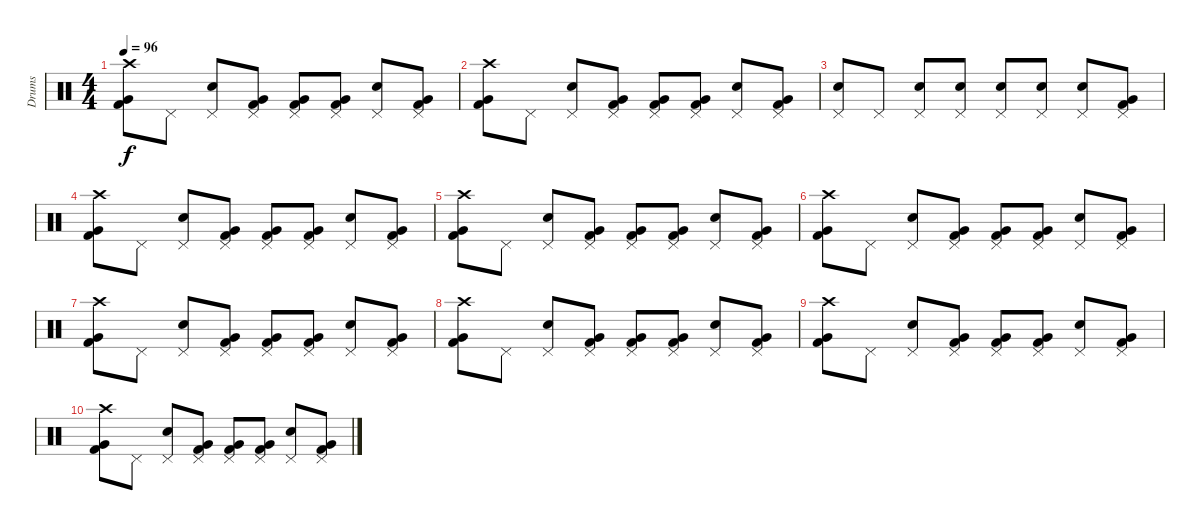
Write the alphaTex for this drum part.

\track ("Drums" "Drums") {instrument percussion}
\staff {score}
\articulation defaults
\ts (4 4)
\tempo 96
\clef neutral
\ks c
("Crash high (hit)" "Very Low Tom (hit)" "Kick (hit) 2").8{dy f} "Pedal Hi-Hat (hit)".8 ("Pedal Hi-Hat (hit)" "Electric Snare (hit)").8 ("Pedal Hi-Hat (hit)" "Very Low Tom (hit)" "Kick (hit) 2").8 ("Pedal Hi-Hat (hit)" "Very Low Tom (hit)" "Kick (hit) 2").8 ("Pedal Hi-Hat (hit)" "Very Low Tom (hit)" "Kick (hit) 2").8 ("Pedal Hi-Hat (hit)" "Electric Snare (hit)").8 ("Pedal Hi-Hat (hit)" "Very Low Tom (hit)" "Kick (hit) 2").8 |
("Crash high (hit)" "Very Low Tom (hit)" "Kick (hit) 2").8{volume 11} "Pedal Hi-Hat (hit)".8 ("Pedal Hi-Hat (hit)" "Electric Snare (hit)").8 ("Pedal Hi-Hat (hit)" "Very Low Tom (hit)" "Kick (hit) 2").8 ("Pedal Hi-Hat (hit)" "Very Low Tom (hit)" "Kick (hit) 2").8 ("Pedal Hi-Hat (hit)" "Very Low Tom (hit)" "Kick (hit) 2").8 ("Pedal Hi-Hat (hit)" "Electric Snare (hit)").8 ("Pedal Hi-Hat (hit)" "Very Low Tom (hit)" "Kick (hit) 2").8 |
("Pedal Hi-Hat (hit)" "Electric Snare (hit)").8 "Pedal Hi-Hat (hit)".8 ("Pedal Hi-Hat (hit)" "Electric Snare (hit)").8 ("Pedal Hi-Hat (hit)" "Electric Snare (hit)").8 ("Pedal Hi-Hat (hit)" "Electric Snare (hit)").8 ("Pedal Hi-Hat (hit)" "Electric Snare (hit)").8 ("Pedal Hi-Hat (hit)" "Electric Snare (hit)").8 ("Pedal Hi-Hat (hit)" "Very Low Tom (hit)" "Kick (hit) 2").8 |
("Crash high (hit)" "Very Low Tom (hit)" "Kick (hit) 2").8{volume 8} "Pedal Hi-Hat (hit)".8 ("Pedal Hi-Hat (hit)" "Electric Snare (hit)").8 ("Pedal Hi-Hat (hit)" "Very Low Tom (hit)" "Kick (hit) 2").8 ("Pedal Hi-Hat (hit)" "Very Low Tom (hit)" "Kick (hit) 2").8 ("Pedal Hi-Hat (hit)" "Very Low Tom (hit)" "Kick (hit) 2").8 ("Pedal Hi-Hat (hit)" "Electric Snare (hit)").8 ("Pedal Hi-Hat (hit)" "Very Low Tom (hit)" "Kick (hit) 2").8 |
("Crash high (hit)" "Very Low Tom (hit)" "Kick (hit) 2").8 "Pedal Hi-Hat (hit)".8 ("Pedal Hi-Hat (hit)" "Electric Snare (hit)").8 ("Pedal Hi-Hat (hit)" "Very Low Tom (hit)" "Kick (hit) 2").8 ("Pedal Hi-Hat (hit)" "Very Low Tom (hit)" "Kick (hit) 2").8 ("Pedal Hi-Hat (hit)" "Very Low Tom (hit)" "Kick (hit) 2").8 ("Pedal Hi-Hat (hit)" "Electric Snare (hit)").8 ("Pedal Hi-Hat (hit)" "Very Low Tom (hit)" "Kick (hit) 2").8 |
("Crash high (hit)" "Very Low Tom (hit)" "Kick (hit) 2").8{volume 4} "Pedal Hi-Hat (hit)".8 ("Pedal Hi-Hat (hit)" "Electric Snare (hit)").8 ("Pedal Hi-Hat (hit)" "Very Low Tom (hit)" "Kick (hit) 2").8 ("Pedal Hi-Hat (hit)" "Very Low Tom (hit)" "Kick (hit) 2").8 ("Pedal Hi-Hat (hit)" "Very Low Tom (hit)" "Kick (hit) 2").8 ("Pedal Hi-Hat (hit)" "Electric Snare (hit)").8 ("Pedal Hi-Hat (hit)" "Very Low Tom (hit)" "Kick (hit) 2").8 |
("Crash high (hit)" "Very Low Tom (hit)" "Kick (hit) 2").8 "Pedal Hi-Hat (hit)".8 ("Pedal Hi-Hat (hit)" "Electric Snare (hit)").8 ("Pedal Hi-Hat (hit)" "Very Low Tom (hit)" "Kick (hit) 2").8 ("Pedal Hi-Hat (hit)" "Very Low Tom (hit)" "Kick (hit) 2").8 ("Pedal Hi-Hat (hit)" "Very Low Tom (hit)" "Kick (hit) 2").8 ("Pedal Hi-Hat (hit)" "Electric Snare (hit)").8 ("Pedal Hi-Hat (hit)" "Very Low Tom (hit)" "Kick (hit) 2").8 |
("Crash high (hit)" "Very Low Tom (hit)" "Kick (hit) 2").8{volume 0} "Pedal Hi-Hat (hit)".8 ("Pedal Hi-Hat (hit)" "Electric Snare (hit)").8 ("Pedal Hi-Hat (hit)" "Very Low Tom (hit)" "Kick (hit) 2").8 ("Pedal Hi-Hat (hit)" "Very Low Tom (hit)" "Kick (hit) 2").8 ("Pedal Hi-Hat (hit)" "Very Low Tom (hit)" "Kick (hit) 2").8 ("Pedal Hi-Hat (hit)" "Electric Snare (hit)").8 ("Pedal Hi-Hat (hit)" "Very Low Tom (hit)" "Kick (hit) 2").8 |
("Crash high (hit)" "Very Low Tom (hit)" "Kick (hit) 2").8 "Pedal Hi-Hat (hit)".8 ("Pedal Hi-Hat (hit)" "Electric Snare (hit)").8 ("Pedal Hi-Hat (hit)" "Very Low Tom (hit)" "Kick (hit) 2").8 ("Pedal Hi-Hat (hit)" "Very Low Tom (hit)" "Kick (hit) 2").8 ("Pedal Hi-Hat (hit)" "Very Low Tom (hit)" "Kick (hit) 2").8 ("Pedal Hi-Hat (hit)" "Electric Snare (hit)").8 ("Pedal Hi-Hat (hit)" "Very Low Tom (hit)" "Kick (hit) 2").8 |
("Crash high (hit)" "Very Low Tom (hit)" "Kick (hit) 2").8 "Pedal Hi-Hat (hit)".8 ("Pedal Hi-Hat (hit)" "Electric Snare (hit)").8 ("Pedal Hi-Hat (hit)" "Very Low Tom (hit)" "Kick (hit) 2").8 ("Pedal Hi-Hat (hit)" "Very Low Tom (hit)" "Kick (hit) 2").8 ("Pedal Hi-Hat (hit)" "Very Low Tom (hit)" "Kick (hit) 2").8 ("Pedal Hi-Hat (hit)" "Electric Snare (hit)").8 ("Pedal Hi-Hat (hit)" "Very Low Tom (hit)" "Kick (hit) 2").8
